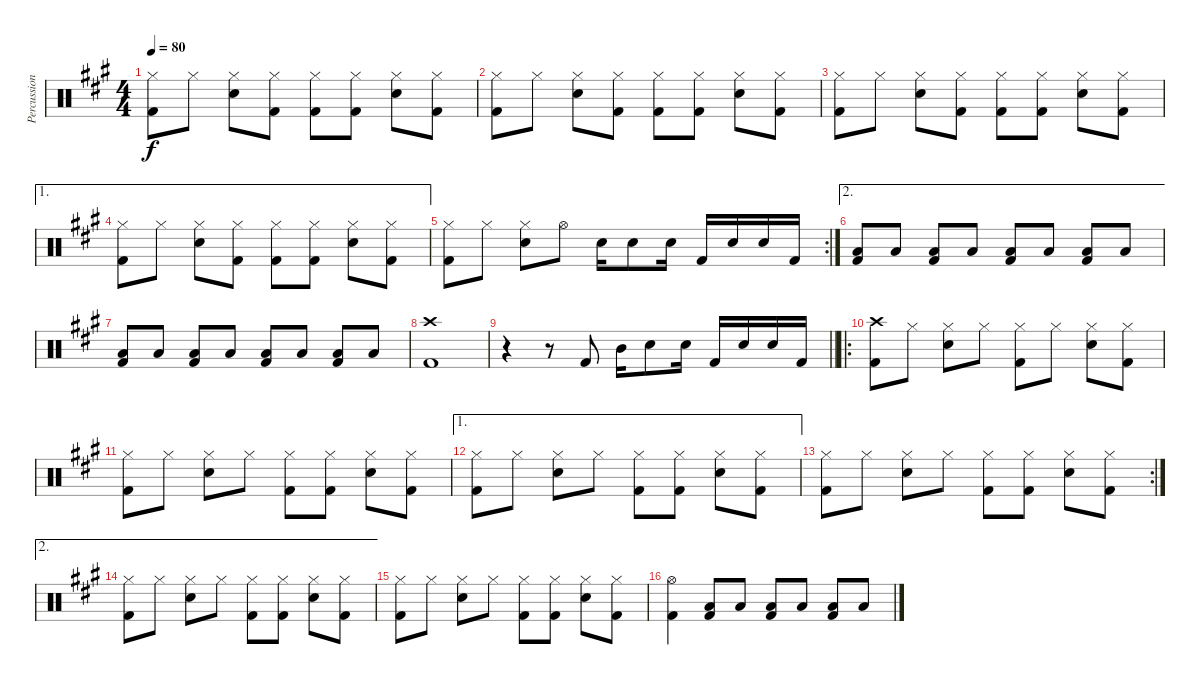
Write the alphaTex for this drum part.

\track ("Percussion" "Percussion") {instrument percussion}
\staff {score}
\articulation defaults
\ts (4 4)
\tempo 80
\clef neutral
\ks a
("Hi-Hat (closed)" "Kick (hit) 2").8{dy f} "Hi-Hat (closed)".8 ("Hi-Hat (closed)" "Snare (hit) 2").8 ("Hi-Hat (closed)" "Kick (hit) 2").8 ("Hi-Hat (closed)" "Kick (hit) 2").8 ("Hi-Hat (closed)" "Kick (hit) 2").8 ("Hi-Hat (closed)" "Snare (hit) 2").8 ("Hi-Hat (closed)" "Kick (hit) 2").8 |
("Hi-Hat (closed)" "Kick (hit) 2").8 "Hi-Hat (closed)".8 ("Hi-Hat (closed)" "Snare (hit) 2").8 ("Hi-Hat (closed)" "Kick (hit) 2").8 ("Hi-Hat (closed)" "Kick (hit) 2").8 ("Hi-Hat (closed)" "Kick (hit) 2").8 ("Hi-Hat (closed)" "Snare (hit) 2").8 ("Hi-Hat (closed)" "Kick (hit) 2").8 |
("Hi-Hat (closed)" "Kick (hit) 2").8 "Hi-Hat (closed)".8 ("Hi-Hat (closed)" "Snare (hit) 2").8 ("Hi-Hat (closed)" "Kick (hit) 2").8 ("Hi-Hat (closed)" "Kick (hit) 2").8 ("Hi-Hat (closed)" "Kick (hit) 2").8 ("Hi-Hat (closed)" "Snare (hit) 2").8 ("Hi-Hat (closed)" "Kick (hit) 2").8 |
\ae 1
("Hi-Hat (closed)" "Kick (hit) 2").8 "Hi-Hat (closed)".8 ("Hi-Hat (closed)" "Snare (hit) 2").8 ("Hi-Hat (closed)" "Kick (hit) 2").8 ("Hi-Hat (closed)" "Kick (hit) 2").8 ("Hi-Hat (closed)" "Kick (hit) 2").8 ("Hi-Hat (closed)" "Snare (hit) 2").8 ("Hi-Hat (closed)" "Kick (hit) 2").8 |
\rc 2
("Hi-Hat (closed)" "Kick (hit) 2").8 "Hi-Hat (closed)".8 ("Hi-Hat (closed)" "Snare (hit) 2").8 "Hi-Hat (open)".8 "Snare (hit) 2".16 "Snare (hit) 2".8 "Snare (hit) 2".16 "Kick (hit) 2".16 "Snare (hit) 2".16 "Snare (hit) 2".16 "Kick (hit) 2".16 |
\ae 2
("Low Floor Tom (hit)" "Kick (hit) 2").8 "Low Floor Tom (hit)".8 ("Low Floor Tom (hit)" "Kick (hit) 2").8 "Low Floor Tom (hit)".8 ("Low Floor Tom (hit)" "Kick (hit) 2").8 "Low Floor Tom (hit)".8 ("Low Floor Tom (hit)" "Kick (hit) 2").8 "Low Floor Tom (hit)".8 |
("Low Floor Tom (hit)" "Kick (hit) 2").8 "Low Floor Tom (hit)".8 ("Low Floor Tom (hit)" "Kick (hit) 2").8 "Low Floor Tom (hit)".8 ("Low Floor Tom (hit)" "Kick (hit) 2").8 "Low Floor Tom (hit)".8 ("Low Floor Tom (hit)" "Kick (hit) 2").8 "Low Floor Tom (hit)".8 |
("Crash high (hit)" "Kick (hit) 2").1 |
\barLineRight lightlight
r.4 r.8 "Kick (hit) 2".8 "Mid Tom (hit)".16 "Snare (hit) 2".8 "Snare (hit) 2".16 "Kick (hit) 2".16 "Snare (hit) 2".16 "Snare (hit) 2".16 "Kick (hit) 2".16 |
\ro
("Crash high (hit)" "Kick (hit) 2").8 "Hi-Hat (closed)".8 ("Hi-Hat (closed)" "Snare (hit) 2").8 "Hi-Hat (closed)".8 ("Hi-Hat (closed)" "Kick (hit) 2").8 "Hi-Hat (closed)".8 ("Hi-Hat (closed)" "Snare (hit) 2").8 ("Hi-Hat (closed)" "Kick (hit) 2").8 |
("Hi-Hat (closed)" "Kick (hit) 2").8 "Hi-Hat (closed)".8 ("Hi-Hat (closed)" "Snare (hit) 2").8 "Hi-Hat (closed)".8 ("Hi-Hat (closed)" "Kick (hit) 2").8 ("Hi-Hat (closed)" "Kick (hit) 2").8 ("Hi-Hat (closed)" "Snare (hit) 2").8 ("Hi-Hat (closed)" "Kick (hit) 2").8 |
\ae 1
("Hi-Hat (closed)" "Kick (hit) 2").8 "Hi-Hat (closed)".8 ("Hi-Hat (closed)" "Snare (hit) 2").8 "Hi-Hat (closed)".8 ("Hi-Hat (closed)" "Kick (hit) 2").8 ("Hi-Hat (closed)" "Kick (hit) 2").8 ("Hi-Hat (closed)" "Snare (hit) 2").8 ("Hi-Hat (closed)" "Kick (hit) 2").8 |
\rc 2
("Hi-Hat (closed)" "Kick (hit) 2").8 "Hi-Hat (closed)".8 ("Hi-Hat (closed)" "Snare (hit) 2").8 "Hi-Hat (closed)".8 ("Hi-Hat (closed)" "Kick (hit) 2").8 ("Hi-Hat (closed)" "Kick (hit) 2").8 ("Hi-Hat (closed)" "Snare (hit) 2").8 ("Hi-Hat (closed)" "Kick (hit) 2").8 |
\ae 2
("Hi-Hat (closed)" "Kick (hit) 2").8 "Hi-Hat (closed)".8 ("Hi-Hat (closed)" "Snare (hit) 2").8 "Hi-Hat (closed)".8 ("Hi-Hat (closed)" "Kick (hit) 2").8 ("Hi-Hat (closed)" "Kick (hit) 2").8 ("Hi-Hat (closed)" "Snare (hit) 2").8 ("Hi-Hat (closed)" "Kick (hit) 2").8 |
("Hi-Hat (closed)" "Kick (hit) 2").8 "Hi-Hat (closed)".8 ("Hi-Hat (closed)" "Snare (hit) 2").8 "Hi-Hat (closed)".8 ("Hi-Hat (closed)" "Kick (hit) 2").8 ("Hi-Hat (closed)" "Kick (hit) 2").8 ("Hi-Hat (closed)" "Snare (hit) 2").8 ("Hi-Hat (closed)" "Kick (hit) 2").8 |
("Hi-Hat (open)" "Kick (hit) 2").4 ("Low Floor Tom (hit)" "Kick (hit) 2").8 "Low Floor Tom (hit)".8 ("Low Floor Tom (hit)" "Kick (hit) 2").8 "Low Floor Tom (hit)".8 ("Low Floor Tom (hit)" "Kick (hit) 2").8 "Low Floor Tom (hit)".8
